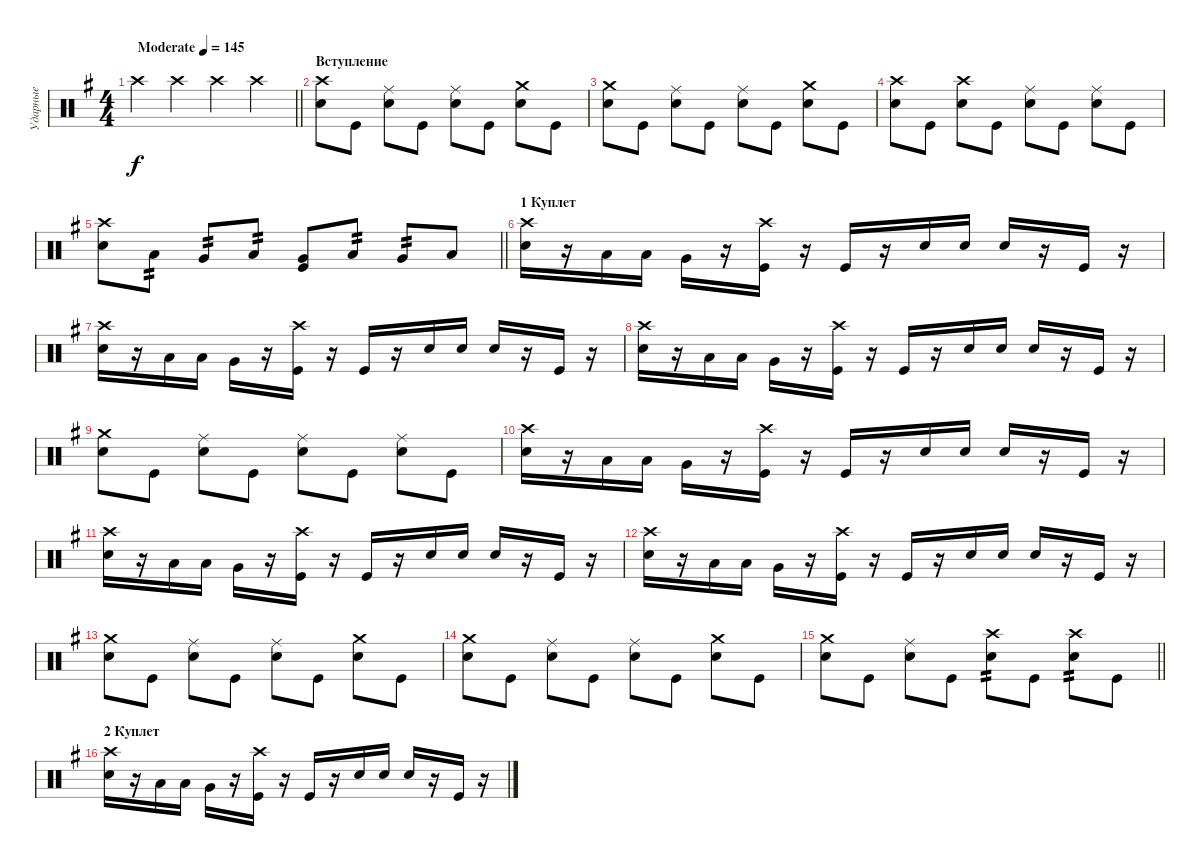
\track ("Ударные" "Ударные") {instrument percussion}
\staff {score}
\articulation defaults
\ts (4 4)
\tempo (145 "Moderate")
\clef neutral
\barLineRight lightlight
\ks eminor "Crash high (hit)".4{dy f} "Crash high (hit)".4 "Crash high (hit)".4 "Crash high (hit)".4
|
\section ("" "Вступление")
("Crash high (hit)" "Snare (hit) 2").8 "Kick (hit)".8 ("Ride (middle)" "Snare (hit) 2").8 "Kick (hit)".8 ("Ride (middle)" "Snare (hit) 2").8 "Kick (hit)".8 ("Crash medium (hit)" "Snare (hit) 2").8 "Kick (hit)".8 |
("Crash medium (hit)" "Snare (hit) 2").8 "Kick (hit)".8 ("Ride (middle)" "Snare (hit) 2").8 "Kick (hit)".8 ("Ride (middle)" "Snare (hit) 2").8 "Kick (hit)".8 ("Crash medium (hit)" "Snare (hit) 2").8 "Kick (hit)".8 |
("Crash high (hit)" "Snare (hit) 2").8 "Kick (hit)".8 ("Crash high (hit)" "Snare (hit) 2").8 "Kick (hit)".8 ("Ride (middle)" "Snare (hit) 2").8 "Kick (hit)".8 ("Ride (middle)" "Snare (hit) 2").8 "Kick (hit)".8 |
\barLineRight lightlight
("Crash high (hit)" "Snare (hit) 2").8 "Low Tom (hit)".8{tp 2} "Very Low Tom (hit)".8{tp 2} "Low Tom (hit)".8{tp 2} ("Very Low Tom (hit)" "Kick (hit)").8 "Low Tom (hit)".8{tp 2} "Very Low Tom (hit)".8{tp 2} "Low Floor Tom (hit)".8 |
\section ("" "1 Куплет")
("Crash high (hit)" "Snare (hit) 2").16 r.16 "Low Tom (hit)".16 "Low Tom (hit)".16 "Very Low Tom (hit)".16 r.16 ("Crash high (hit)" "Kick (hit)").16 r.16 "Kick (hit)".16 r.16 "Snare (hit) 2".16 "Snare (hit) 2".16 "Snare (hit) 2".16 r.16 "Kick (hit)".16 r.16 |
("Crash high (hit)" "Snare (hit) 2").16 r.16 "Low Tom (hit)".16 "Low Tom (hit)".16 "Very Low Tom (hit)".16 r.16 ("Crash high (hit)" "Kick (hit)").16 r.16 "Kick (hit)".16 r.16 "Snare (hit) 2".16 "Snare (hit) 2".16 "Snare (hit) 2".16 r.16 "Kick (hit)".16 r.16 |
("Crash high (hit)" "Snare (hit) 2").16 r.16 "Low Tom (hit)".16 "Low Tom (hit)".16 "Very Low Tom (hit)".16 r.16 ("Crash high (hit)" "Kick (hit)").16 r.16 "Kick (hit)".16 r.16 "Snare (hit) 2".16 "Snare (hit) 2".16 "Snare (hit) 2".16 r.16 "Kick (hit)".16 r.16 |
("Crash medium (hit)" "Snare (hit) 2").8 "Kick (hit)".8 ("Ride (middle)" "Snare (hit) 2").8 "Kick (hit)".8 ("Ride (middle)" "Snare (hit) 2").8 "Kick (hit)".8 ("Ride (middle)" "Snare (hit) 2").8 "Kick (hit)".8 |
("Crash high (hit)" "Snare (hit) 2").16 r.16 "Low Tom (hit)".16 "Low Tom (hit)".16 "Very Low Tom (hit)".16 r.16 ("Crash high (hit)" "Kick (hit)").16 r.16 "Kick (hit)".16 r.16 "Snare (hit) 2".16 "Snare (hit) 2".16 "Snare (hit) 2".16 r.16 "Kick (hit)".16 r.16 |
("Crash high (hit)" "Snare (hit) 2").16 r.16 "Low Tom (hit)".16 "Low Tom (hit)".16 "Very Low Tom (hit)".16 r.16 ("Crash high (hit)" "Kick (hit)").16 r.16 "Kick (hit)".16 r.16 "Snare (hit) 2".16 "Snare (hit) 2".16 "Snare (hit) 2".16 r.16 "Kick (hit)".16 r.16 |
("Crash high (hit)" "Snare (hit) 2").16 r.16 "Low Tom (hit)".16 "Low Tom (hit)".16 "Very Low Tom (hit)".16 r.16 ("Crash high (hit)" "Kick (hit)").16 r.16 "Kick (hit)".16 r.16 "Snare (hit) 2".16 "Snare (hit) 2".16 "Snare (hit) 2".16 r.16 "Kick (hit)".16 r.16 |
("Crash medium (hit)" "Snare (hit) 2").8 "Kick (hit)".8 ("Ride (middle)" "Snare (hit) 2").8 "Kick (hit)".8 ("Ride (middle)" "Snare (hit) 2").8 "Kick (hit)".8 ("Crash medium (hit)" "Snare (hit) 2").8 "Kick (hit)".8 |
("Crash medium (hit)" "Snare (hit) 2").8 "Kick (hit)".8 ("Ride (middle)" "Snare (hit) 2").8 "Kick (hit)".8 ("Ride (middle)" "Snare (hit) 2").8 "Kick (hit)".8 ("Crash medium (hit)" "Snare (hit) 2").8 "Kick (hit)".8 |
\barLineRight lightlight
("Crash medium (hit)" "Snare (hit) 2").8 "Kick (hit)".8 ("Ride (middle)" "Snare (hit) 2").8 "Kick (hit)".8 ("Crash high (hit)" "Snare (hit) 2").8{tp 2} "Kick (hit)".8 ("Crash high (hit)" "Snare (hit) 2").8{tp 2} "Kick (hit)".8 |
\section ("" "2 Куплет")
("Crash high (hit)" "Snare (hit) 2").16 r.16 "Low Tom (hit)".16 "Low Tom (hit)".16 "Very Low Tom (hit)".16 r.16 ("Crash high (hit)" "Kick (hit)").16 r.16 "Kick (hit)".16 r.16 "Snare (hit) 2".16 "Snare (hit) 2".16 "Snare (hit) 2".16 r.16 "Kick (hit)".16 r.16
